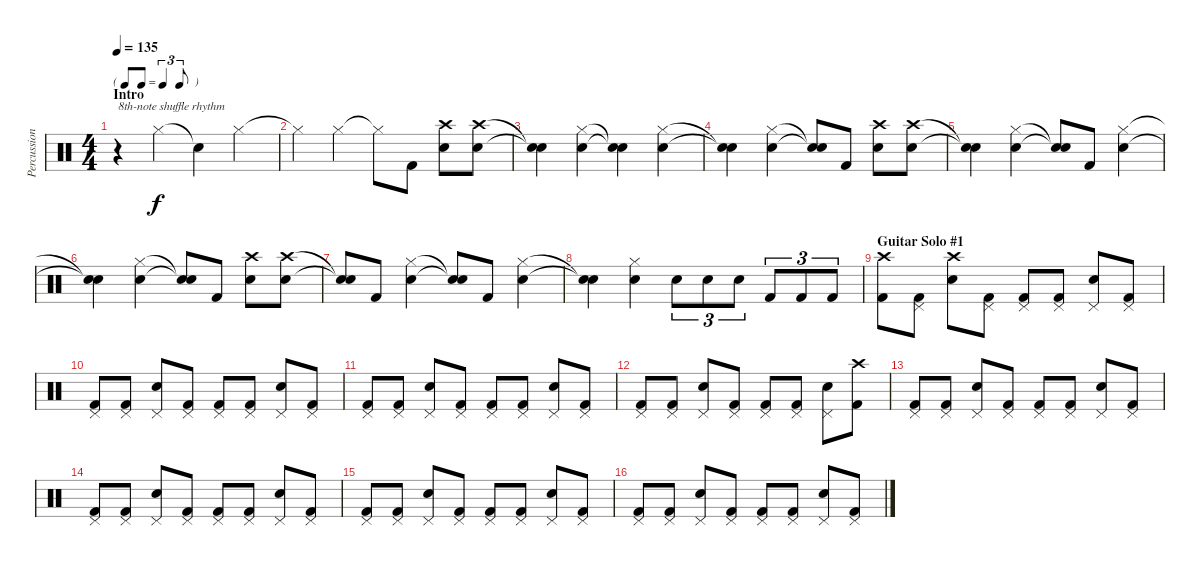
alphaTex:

\track ("Percussion" "Percussion") {instrument percussion}
\staff {score}
\articulation defaults
\ts (4 4)
\tf triplet8th
\section ("" "Intro")
\tempo 135
\clef neutral
\ks c
r.4{txt "8th-note shuffle rhythm" dy f} "Hi-Hat (closed)".4 "Snare (hit)"{t}.4 "Hi-Hat (closed)".4 |
"Hi-Hat (closed)"{t}.4 "Hi-Hat (closed)".4 "Hi-Hat (closed)"{t}.8 "Kick (hit) 2".8 ("Crash high (hit)" "Electric Snare (hit)").8 ("Crash high (hit)" "Electric Snare (hit)").8 |
("Snare (hit)"{t} "Snare (hit)"{t}).4 ("Hi-Hat (closed)" "Electric Snare (hit)").4 ("Snare (hit)"{t} "Snare (hit)"{t}).4 ("Hi-Hat (closed)" "Electric Snare (hit)").4 |
("Snare (hit)"{t} "Snare (hit)"{t}).4 ("Hi-Hat (closed)" "Electric Snare (hit)").4 ("Snare (hit)"{t} "Snare (hit)"{t}).8 "Kick (hit) 2".8 ("Crash high (hit)" "Electric Snare (hit)").8 ("Crash high (hit)" "Electric Snare (hit)").8 |
("Snare (hit)"{t} "Snare (hit)"{t}).4 ("Hi-Hat (closed)" "Electric Snare (hit)").4 ("Snare (hit)"{t} "Snare (hit)"{t}).8 "Kick (hit) 2".8 ("Hi-Hat (closed)" "Electric Snare (hit)").4 |
("Snare (hit)"{t} "Snare (hit)"{t}).4 ("Hi-Hat (closed)" "Electric Snare (hit)").4 ("Snare (hit)"{t} "Snare (hit)"{t}).8 "Kick (hit) 2".8 ("Crash high (hit)" "Electric Snare (hit)").8 ("Crash high (hit)" "Electric Snare (hit)").8 |
("Snare (hit)"{t} "Snare (hit)"{t}).8 "Kick (hit) 2".8 ("Hi-Hat (closed)" "Electric Snare (hit)").4 ("Snare (hit)"{t} "Snare (hit)"{t}).8 "Kick (hit) 2".8 ("Hi-Hat (closed)" "Electric Snare (hit)").4 |
("Snare (hit)"{t} "Snare (hit)"{t}).4 ("Hi-Hat (closed)" "Electric Snare (hit)").4 "Electric Snare (hit)".8{tu (3 2)} "Electric Snare (hit)".8{tu (3 2)} "Electric Snare (hit)".8{tu (3 2)} "Kick (hit) 2".8{tu (3 2)} "Kick (hit) 2".8{tu (3 2)} "Kick (hit) 2".8{tu (3 2)} |
\section ("" "Guitar Solo #1")
("Crash high (hit)" "Kick (hit) 2").8 ("Pedal Hi-Hat (hit)" "Kick (hit) 2").8 ("Crash high (hit)" "Electric Snare (hit)").8 ("Pedal Hi-Hat (hit)" "Kick (hit) 2").8 ("Pedal Hi-Hat (hit)" "Kick (hit) 2").8 ("Pedal Hi-Hat (hit)" "Kick (hit) 2").8 ("Pedal Hi-Hat (hit)" "Electric Snare (hit)").8 ("Pedal Hi-Hat (hit)" "Kick (hit) 2").8 |
("Pedal Hi-Hat (hit)" "Kick (hit) 2").8 ("Pedal Hi-Hat (hit)" "Kick (hit) 2").8 ("Pedal Hi-Hat (hit)" "Electric Snare (hit)").8 ("Pedal Hi-Hat (hit)" "Kick (hit) 2").8 ("Pedal Hi-Hat (hit)" "Kick (hit) 2").8 ("Pedal Hi-Hat (hit)" "Kick (hit) 2").8 ("Pedal Hi-Hat (hit)" "Electric Snare (hit)").8 ("Pedal Hi-Hat (hit)" "Kick (hit) 2").8 |
("Pedal Hi-Hat (hit)" "Kick (hit) 2").8 ("Pedal Hi-Hat (hit)" "Kick (hit) 2").8 ("Pedal Hi-Hat (hit)" "Electric Snare (hit)").8 ("Pedal Hi-Hat (hit)" "Kick (hit) 2").8 ("Pedal Hi-Hat (hit)" "Kick (hit) 2").8 ("Pedal Hi-Hat (hit)" "Kick (hit) 2").8 ("Pedal Hi-Hat (hit)" "Electric Snare (hit)").8 ("Pedal Hi-Hat (hit)" "Kick (hit) 2").8 |
("Pedal Hi-Hat (hit)" "Kick (hit) 2").8 ("Pedal Hi-Hat (hit)" "Kick (hit) 2").8 ("Pedal Hi-Hat (hit)" "Electric Snare (hit)").8 ("Pedal Hi-Hat (hit)" "Kick (hit) 2").8 ("Pedal Hi-Hat (hit)" "Kick (hit) 2").8 ("Pedal Hi-Hat (hit)" "Kick (hit) 2").8 ("Pedal Hi-Hat (hit)" "Electric Snare (hit)").8 ("Crash high (hit)" "Kick (hit) 2").8 |
("Pedal Hi-Hat (hit)" "Kick (hit) 2").8 ("Pedal Hi-Hat (hit)" "Kick (hit) 2").8 ("Pedal Hi-Hat (hit)" "Electric Snare (hit)").8 ("Pedal Hi-Hat (hit)" "Kick (hit) 2").8 ("Pedal Hi-Hat (hit)" "Kick (hit) 2").8 ("Pedal Hi-Hat (hit)" "Kick (hit) 2").8 ("Pedal Hi-Hat (hit)" "Electric Snare (hit)").8 ("Pedal Hi-Hat (hit)" "Kick (hit) 2").8 |
("Pedal Hi-Hat (hit)" "Kick (hit) 2").8 ("Pedal Hi-Hat (hit)" "Kick (hit) 2").8 ("Pedal Hi-Hat (hit)" "Electric Snare (hit)").8 ("Pedal Hi-Hat (hit)" "Kick (hit) 2").8 ("Pedal Hi-Hat (hit)" "Kick (hit) 2").8 ("Pedal Hi-Hat (hit)" "Kick (hit) 2").8 ("Pedal Hi-Hat (hit)" "Electric Snare (hit)").8 ("Pedal Hi-Hat (hit)" "Kick (hit) 2").8 |
("Pedal Hi-Hat (hit)" "Kick (hit) 2").8 ("Pedal Hi-Hat (hit)" "Kick (hit) 2").8 ("Pedal Hi-Hat (hit)" "Electric Snare (hit)").8 ("Pedal Hi-Hat (hit)" "Kick (hit) 2").8 ("Pedal Hi-Hat (hit)" "Kick (hit) 2").8 ("Pedal Hi-Hat (hit)" "Kick (hit) 2").8 ("Pedal Hi-Hat (hit)" "Electric Snare (hit)").8 ("Pedal Hi-Hat (hit)" "Kick (hit) 2").8 |
("Pedal Hi-Hat (hit)" "Kick (hit) 2").8 ("Pedal Hi-Hat (hit)" "Kick (hit) 2").8 ("Pedal Hi-Hat (hit)" "Electric Snare (hit)").8 ("Pedal Hi-Hat (hit)" "Kick (hit) 2").8 ("Pedal Hi-Hat (hit)" "Kick (hit) 2").8 ("Pedal Hi-Hat (hit)" "Kick (hit) 2").8 ("Pedal Hi-Hat (hit)" "Electric Snare (hit)").8 ("Pedal Hi-Hat (hit)" "Kick (hit) 2").8
